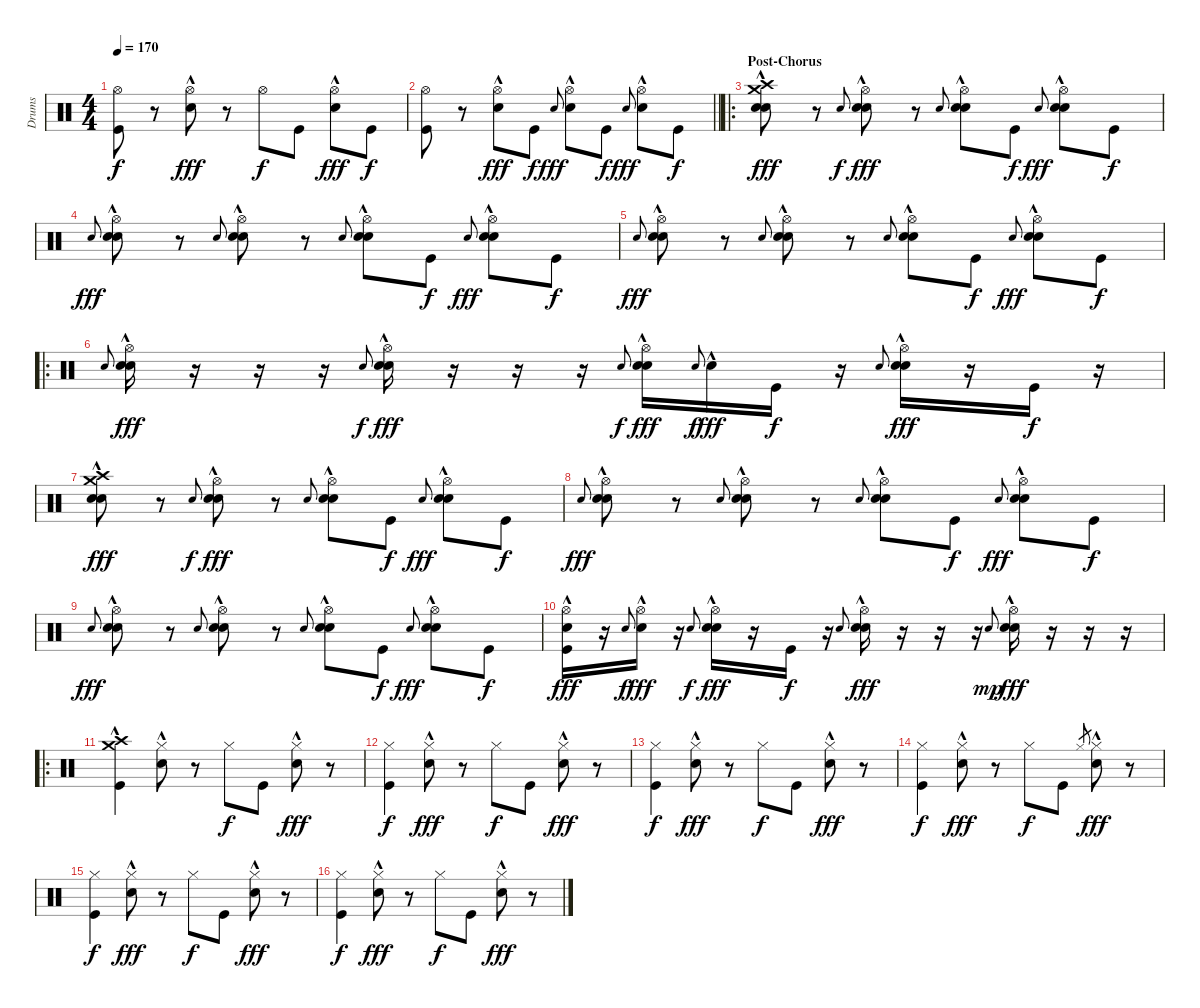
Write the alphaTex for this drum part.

\track ("Drums" "Drums") {instrument percussion}
\staff {score}
\articulation defaults
\ts (4 4)
\tempo 170
\clef neutral
\ks c
("Hi-Hat (open)" "Kick (hit)").8{dy f} r.8 ("Hi-Hat (open)" "Electric Snare (hit)"{hac}).8{dy fff} r.8 "Hi-Hat (open)".8{dy f} "Kick (hit)".8 ("Hi-Hat (open)" "Electric Snare (hit)"{hac}).8{dy fff} "Kick (hit)".8{dy f} |
\barLineRight lightlight
("Hi-Hat (open)" "Kick (hit)").8 r.8 ("Hi-Hat (open)" "Electric Snare (hit)"{hac}).8{dy fff} "Kick (hit)".8{dy f} "Electric Snare (hit)"{sl}.8{gr onbeat dy fff} ("Hi-Hat (open)" "Electric Snare (hit)"{hac}).8 "Kick (hit)".8{dy f} "Electric Snare (hit)"{sl}.8{gr onbeat dy fff} ("Hi-Hat (open)" "Electric Snare (hit)"{hac}).8 "Kick (hit)".8{dy f} |
\ro
\section ("" "Post-Chorus")
("Crash medium (hit)"{hac} "Crash high (hit)"{hac} "Electric Snare (hit)" "Hand Clap (hit)"{hac}).8{dy fff} r.8 "Electric Snare (hit)"{sl}.8{gr onbeat dy f} ("Hi-Hat (open)"{hac} "Electric Snare (hit)" "Hand Clap (hit)"{hac}).8{dy fff} r.8 "Electric Snare (hit)"{sl}.8{gr onbeat} ("Hi-Hat (open)"{hac} "Electric Snare (hit)"{hac} "Hand Clap (hit)"{hac}).8 "Kick (hit)".8{dy f} "Electric Snare (hit)"{sl}.8{gr onbeat dy fff} ("Hi-Hat (open)"{hac} "Electric Snare (hit)"{hac} "Hand Clap (hit)"{hac}).8 "Kick (hit)".8{dy f} |
"Electric Snare (hit)"{sl}.8{gr onbeat dy fff} ("Hi-Hat (open)"{hac} "Electric Snare (hit)"{hac} "Hand Clap (hit)"{hac}).8 r.8 "Electric Snare (hit)"{sl}.8{gr onbeat} ("Hi-Hat (open)"{hac} "Electric Snare (hit)"{hac} "Hand Clap (hit)"{hac}).8 r.8 "Electric Snare (hit)"{sl}.8{gr onbeat} ("Hi-Hat (open)"{hac} "Electric Snare (hit)"{hac} "Hand Clap (hit)"{hac}).8 "Kick (hit)".8{dy f} "Electric Snare (hit)"{sl}.8{gr onbeat dy fff} ("Hi-Hat (open)"{hac} "Electric Snare (hit)"{hac} "Hand Clap (hit)"{hac}).8 "Kick (hit)".8{dy f} |
"Electric Snare (hit)"{sl}.8{gr onbeat dy fff} ("Hi-Hat (open)"{hac} "Electric Snare (hit)"{hac} "Hand Clap (hit)"{hac}).8 r.8 "Electric Snare (hit)"{sl}.8{gr onbeat} ("Hi-Hat (open)"{hac} "Electric Snare (hit)"{hac} "Hand Clap (hit)"{hac}).8 r.8 "Electric Snare (hit)"{sl}.8{gr onbeat} ("Hi-Hat (open)"{hac} "Electric Snare (hit)"{hac} "Hand Clap (hit)"{hac}).8 "Kick (hit)".8{dy f} "Electric Snare (hit)"{sl}.8{gr onbeat dy fff} ("Hi-Hat (open)"{hac} "Electric Snare (hit)"{hac} "Hand Clap (hit)"{hac}).8 "Kick (hit)".8{dy f} |
\ro "Electric Snare (hit)"{sl}.8{gr onbeat}
("Hi-Hat (open)"{hac} "Electric Snare (hit)"{hac} "Hand Clap (hit)"{hac}).16{dy fff} r.16 r.16 r.16 "Electric Snare (hit)"{sl}.8{gr onbeat dy f} ("Hi-Hat (open)"{hac} "Electric Snare (hit)"{hac} "Hand Clap (hit)"{hac}).16{dy fff} r.16 r.16 r.16 "Electric Snare (hit)"{sl}.8{gr onbeat dy f} ("Hi-Hat (open)"{hac} "Electric Snare (hit)"{hac} "Hand Clap (hit)"{hac}).16{dy fff} "Electric Snare (hit)"{sl}.8{gr onbeat dy f} "Electric Snare (hit)"{hac}.16{dy fff} "Kick (hit)".16{dy f} r.16 "Electric Snare (hit)"{sl}.8{gr onbeat} ("Hi-Hat (open)"{hac} "Electric Snare (hit)"{hac} "Hand Clap (hit)"{hac}).16{dy fff} r.16 "Kick (hit)".16{dy f} r.16 |
("Crash medium (hit)"{hac} "Crash high (hit)"{hac} "Electric Snare (hit)" "Hand Clap (hit)"{hac}).8{dy fff} r.8 "Electric Snare (hit)"{sl}.8{gr onbeat dy f} ("Hi-Hat (open)"{hac} "Electric Snare (hit)" "Hand Clap (hit)"{hac}).8{dy fff} r.8 "Electric Snare (hit)"{sl}.8{gr onbeat} ("Hi-Hat (open)"{hac} "Electric Snare (hit)"{hac} "Hand Clap (hit)"{hac}).8 "Kick (hit)".8{dy f} "Electric Snare (hit)"{sl}.8{gr onbeat dy fff} ("Hi-Hat (open)"{hac} "Electric Snare (hit)"{hac} "Hand Clap (hit)"{hac}).8 "Kick (hit)".8{dy f} |
"Electric Snare (hit)"{sl}.8{gr onbeat dy fff} ("Hi-Hat (open)"{hac} "Electric Snare (hit)"{hac} "Hand Clap (hit)"{hac}).8 r.8 "Electric Snare (hit)"{sl}.8{gr onbeat} ("Hi-Hat (open)"{hac} "Electric Snare (hit)"{hac} "Hand Clap (hit)"{hac}).8 r.8 "Electric Snare (hit)"{sl}.8{gr onbeat} ("Hi-Hat (open)"{hac} "Electric Snare (hit)"{hac} "Hand Clap (hit)"{hac}).8 "Kick (hit)".8{dy f} "Electric Snare (hit)"{sl}.8{gr onbeat dy fff} ("Hi-Hat (open)"{hac} "Electric Snare (hit)"{hac} "Hand Clap (hit)"{hac}).8 "Kick (hit)".8{dy f} |
"Electric Snare (hit)"{sl}.8{gr onbeat dy fff} ("Hi-Hat (open)"{hac} "Electric Snare (hit)"{hac} "Hand Clap (hit)"{hac}).8 r.8 "Electric Snare (hit)"{sl}.8{gr onbeat} ("Hi-Hat (open)"{hac} "Electric Snare (hit)"{hac} "Hand Clap (hit)"{hac}).8 r.8 "Electric Snare (hit)"{sl}.8{gr onbeat} ("Hi-Hat (open)"{hac} "Electric Snare (hit)"{hac} "Hand Clap (hit)"{hac}).8 "Kick (hit)".8{dy f} "Electric Snare (hit)"{sl}.8{gr onbeat dy fff} ("Hi-Hat (open)"{hac} "Electric Snare (hit)"{hac} "Hand Clap (hit)"{hac}).8 "Kick (hit)".8{dy f} |
("Hi-Hat (open)"{hac} "Hand Clap (hit)"{hac} "Kick (hit)").16{dy fff} r.16 "Electric Snare (hit)"{sl}.8{gr onbeat dy f} ("Hi-Hat (open)" "Electric Snare (hit)"{hac}).16{dy fff} r.16 "Electric Snare (hit)"{sl}.8{gr onbeat dy f} ("Hi-Hat (open)"{hac} "Electric Snare (hit)"{hac} "Hand Clap (hit)"{hac}).16{dy fff} r.16 "Kick (hit)".16{dy f} r.16 "Electric Snare (hit)"{sl}.8{gr onbeat} ("Hi-Hat (open)"{hac} "Electric Snare (hit)"{hac} "Hand Clap (hit)"{hac}).16{dy fff} r.16 r.16 r.16 "Electric Snare (hit)"{sl}.8{gr onbeat dy mp} ("Hi-Hat (open)"{hac} "Electric Snare (hit)"{hac} "Hand Clap (hit)"{hac}).16{dy fff} r.16 r.16 r.16 |
\ro
("Crash high (hit)"{hac} "Crash medium (hit)" "Kick (hit)").4 ("Hi-Hat (closed)" "Electric Snare (hit)"{hac}).8 r.8 "Hi-Hat (closed)".8{dy f} "Kick (hit)".8 ("Hi-Hat (closed)" "Electric Snare (hit)"{hac}).8{dy fff} r.8 |
("Hi-Hat (closed)" "Kick (hit)").4{dy f} ("Hi-Hat (closed)" "Electric Snare (hit)"{hac}).8{dy fff} r.8 "Hi-Hat (closed)".8{dy f} "Kick (hit)".8 ("Hi-Hat (closed)" "Electric Snare (hit)"{hac}).8{dy fff} r.8 |
("Hi-Hat (closed)" "Kick (hit)").4{dy f} ("Hi-Hat (closed)" "Electric Snare (hit)"{hac}).8{dy fff} r.8 "Hi-Hat (closed)".8{dy f} "Kick (hit)".8 ("Hi-Hat (closed)" "Electric Snare (hit)"{hac}).8{dy fff} r.8 |
("Hi-Hat (closed)" "Kick (hit)").4{dy f} ("Hi-Hat (closed)" "Electric Snare (hit)"{hac}).8{dy fff} r.8 "Hi-Hat (closed)".8{dy f} "Kick (hit)".8 "Hi-Hat (closed)".8{gr} ("Hi-Hat (closed)" "Electric Snare (hit)"{hac}).8{dy fff} r.8 |
("Hi-Hat (closed)" "Kick (hit)").4{dy f} ("Hi-Hat (closed)" "Electric Snare (hit)"{hac}).8{dy fff} r.8 "Hi-Hat (closed)".8{dy f} "Kick (hit)".8 ("Hi-Hat (closed)" "Electric Snare (hit)"{hac}).8{dy fff} r.8 |
("Hi-Hat (closed)" "Kick (hit)").4{dy f} ("Hi-Hat (closed)" "Electric Snare (hit)"{hac}).8{dy fff} r.8 "Hi-Hat (closed)".8{dy f} "Kick (hit)".8 ("Hi-Hat (closed)" "Electric Snare (hit)"{hac}).8{dy fff} r.8
